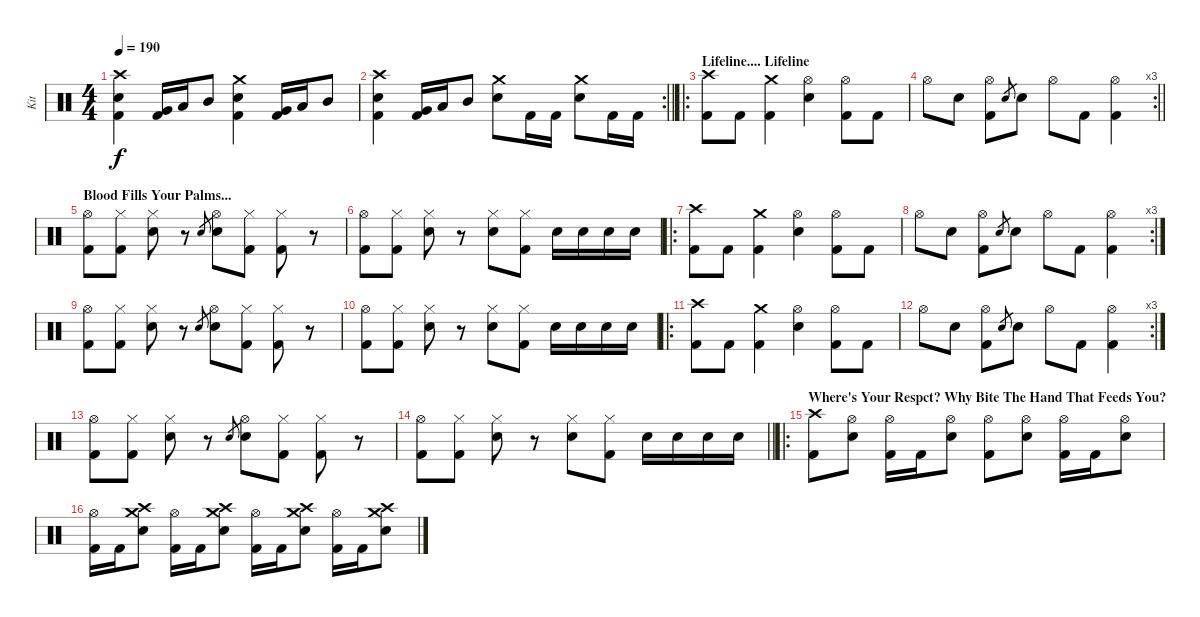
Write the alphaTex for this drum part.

\track ("Kit" "Kit") {instrument percussion}
\staff {score}
\articulation defaults
\ts (4 4)
\tempo 190
\clef neutral
\ks c
("Crash high (hit)" "Electric Snare (hit)" "Kick (hit) 2").4{dy f} ("Very Low Tom (hit)" "Kick (hit) 2").16 "Low Tom (hit)".16 "Mid Tom (hit)".8 ("Crash medium (hit)" "Electric Snare (hit)" "Kick (hit) 2").4 ("Very Low Tom (hit)" "Kick (hit) 2").16 "Low Tom (hit)".16 "Mid Tom (hit)".8 |
\rc 2
\barLineRight lightlight
("Crash high (hit)" "Electric Snare (hit)" "Kick (hit) 2").4 ("Very Low Tom (hit)" "Kick (hit) 2").16 "Low Tom (hit)".16 "Mid Tom (hit)".8 ("Crash medium (hit)" "Electric Snare (hit)").8 "Kick (hit) 2".16 "Kick (hit) 2".16 ("Crash medium (hit)" "Electric Snare (hit)").8 "Kick (hit) 2".16 "Kick (hit) 2".16 |
\ro
\section ("" "Lifeline.... Lifeline")
("Crash high (hit)" "Kick (hit) 2").8 "Kick (hit) 2".8 ("Crash medium (hit)" "Kick (hit) 2").4 ("Hi-Hat (open)" "Electric Snare (hit)").4 ("Hi-Hat (open)" "Kick (hit) 2").8 "Kick (hit) 2".8 |
\rc 3
\barLineRight lightlight "Hi-Hat (open)".8 "Electric Snare (hit)".8
("Hi-Hat (open)" "Kick (hit) 2").8 "Electric Snare (hit)".8{gr} "Electric Snare (hit)".8 "Hi-Hat (open)".8 "Kick (hit) 2".8 ("Hi-Hat (open)" "Kick (hit) 2").4 |
\section ("" "Blood Fills Your Palms...")
("Hi-Hat (open)" "Kick (hit) 2").8 ("Hi-Hat (closed)" "Kick (hit) 2").8 ("Hi-Hat (closed)" "Electric Snare (hit)").8 r.8 "Electric Snare (hit)".8{gr} ("Hi-Hat (open)" "Electric Snare (hit)").8 ("Hi-Hat (closed)" "Kick (hit) 2").8 ("Hi-Hat (closed)" "Kick (hit) 2").8 r.8 |
("Hi-Hat (open)" "Kick (hit) 2").8 ("Hi-Hat (closed)" "Kick (hit) 2").8 ("Hi-Hat (closed)" "Electric Snare (hit)").8 r.8 ("Hi-Hat (closed)" "Electric Snare (hit)").8 ("Hi-Hat (closed)" "Kick (hit) 2").8 "Electric Snare (hit)".16 "Electric Snare (hit)".16 "Electric Snare (hit)".16 "Electric Snare (hit)".16 |
\ro
("Crash high (hit)" "Kick (hit) 2").8 "Kick (hit) 2".8 ("Crash medium (hit)" "Kick (hit) 2").4 ("Hi-Hat (open)" "Electric Snare (hit)").4 ("Hi-Hat (open)" "Kick (hit) 2").8 "Kick (hit) 2".8 |
\rc 3 "Hi-Hat (open)".8 "Electric Snare (hit)".8
("Hi-Hat (open)" "Kick (hit) 2").8 "Electric Snare (hit)".8{gr} "Electric Snare (hit)".8 "Hi-Hat (open)".8 "Kick (hit) 2".8 ("Hi-Hat (open)" "Kick (hit) 2").4 |
("Hi-Hat (open)" "Kick (hit) 2").8 ("Hi-Hat (closed)" "Kick (hit) 2").8 ("Hi-Hat (closed)" "Electric Snare (hit)").8 r.8 "Electric Snare (hit)".8{gr} ("Hi-Hat (open)" "Electric Snare (hit)").8 ("Hi-Hat (closed)" "Kick (hit) 2").8 ("Hi-Hat (closed)" "Kick (hit) 2").8 r.8 |
("Hi-Hat (open)" "Kick (hit) 2").8 ("Hi-Hat (closed)" "Kick (hit) 2").8 ("Hi-Hat (closed)" "Electric Snare (hit)").8 r.8 ("Hi-Hat (closed)" "Electric Snare (hit)").8 ("Hi-Hat (closed)" "Kick (hit) 2").8 "Electric Snare (hit)".16 "Electric Snare (hit)".16 "Electric Snare (hit)".16 "Electric Snare (hit)".16 |
\ro
("Crash high (hit)" "Kick (hit) 2").8 "Kick (hit) 2".8 ("Crash medium (hit)" "Kick (hit) 2").4 ("Hi-Hat (open)" "Electric Snare (hit)").4 ("Hi-Hat (open)" "Kick (hit) 2").8 "Kick (hit) 2".8 |
\rc 3 "Hi-Hat (open)".8 "Electric Snare (hit)".8
("Hi-Hat (open)" "Kick (hit) 2").8 "Electric Snare (hit)".8{gr} "Electric Snare (hit)".8 "Hi-Hat (open)".8 "Kick (hit) 2".8 ("Hi-Hat (open)" "Kick (hit) 2").4 |
("Hi-Hat (open)" "Kick (hit) 2").8 ("Hi-Hat (closed)" "Kick (hit) 2").8 ("Hi-Hat (closed)" "Electric Snare (hit)").8 r.8 "Electric Snare (hit)".8{gr} ("Hi-Hat (open)" "Electric Snare (hit)").8 ("Hi-Hat (closed)" "Kick (hit) 2").8 ("Hi-Hat (closed)" "Kick (hit) 2").8 r.8 |
\barLineRight lightlight
("Hi-Hat (open)" "Kick (hit) 2").8 ("Hi-Hat (closed)" "Kick (hit) 2").8 ("Hi-Hat (closed)" "Electric Snare (hit)").8 r.8 ("Hi-Hat (closed)" "Electric Snare (hit)").8 ("Hi-Hat (closed)" "Kick (hit) 2").8 "Electric Snare (hit)".16 "Electric Snare (hit)".16 "Electric Snare (hit)".16 "Electric Snare (hit)".16 |
\ro
\section ("" "Where's Your Respct? Why Bite The Hand That Feeds You?")
("Crash high (hit)" "Kick (hit) 2").8 ("Hi-Hat (open)" "Electric Snare (hit)").8 ("Hi-Hat (open)" "Kick (hit) 2").16 "Kick (hit) 2".16 ("Hi-Hat (open)" "Electric Snare (hit)").8 ("Hi-Hat (open)" "Kick (hit) 2").8 ("Hi-Hat (open)" "Electric Snare (hit)").8 ("Hi-Hat (open)" "Kick (hit) 2").16 "Kick (hit) 2".16 ("Hi-Hat (open)" "Electric Snare (hit)").8 |
("Hi-Hat (open)" "Kick (hit) 2").16 "Kick (hit) 2".16 ("Crash high (hit)" "Crash medium (hit)" "Electric Snare (hit)").8 ("Hi-Hat (open)" "Kick (hit) 2").16 "Kick (hit) 2".16 ("Crash high (hit)" "Crash medium (hit)" "Electric Snare (hit)").8 ("Hi-Hat (open)" "Kick (hit) 2").16 "Kick (hit) 2".16 ("Crash high (hit)" "Crash medium (hit)" "Electric Snare (hit)").8 ("Hi-Hat (open)" "Kick (hit) 2").16 "Kick (hit) 2".16 ("Crash high (hit)" "Crash medium (hit)" "Electric Snare (hit)").8
